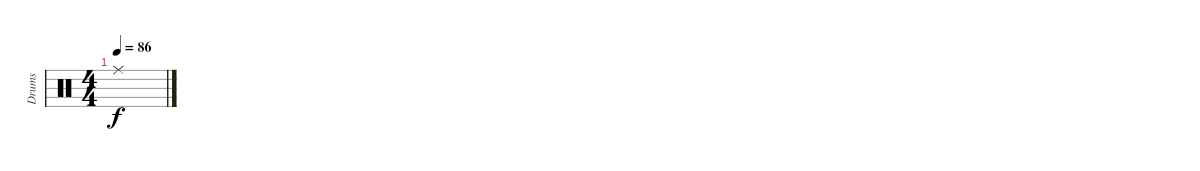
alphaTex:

\track ("Drums" "Drums") {instrument percussion}
\staff {score}
\articulation defaults
\ts (4 4)
\tempo 86
\clef neutral
\ks c "Ride (middle)".1{dy f}
